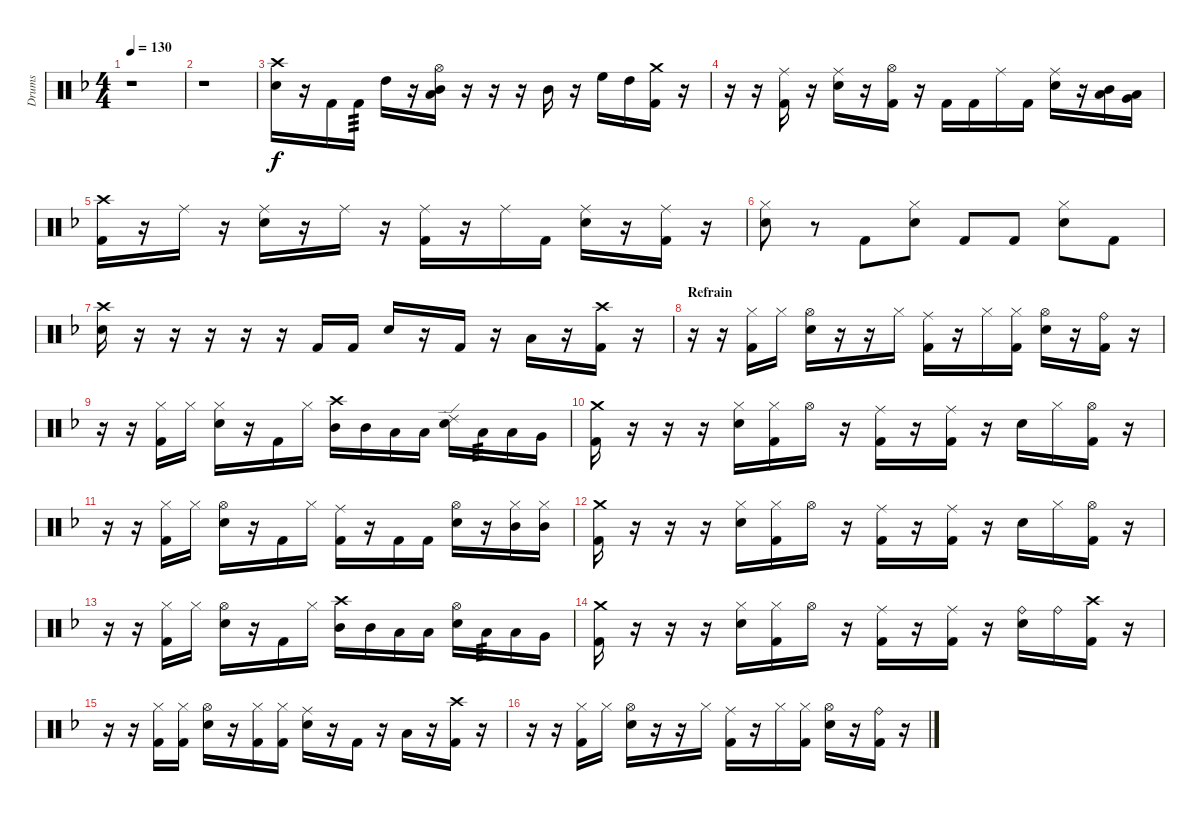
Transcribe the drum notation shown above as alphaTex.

\track ("Drums" "Drums") {instrument percussion}
\staff {score}
\articulation defaults
\ts (4 4)
\tempo 130
\clef neutral
\ks dminor
r.1{dy f} |
r.1 |
("Crash high (hit)" "Snare (hit) 2").16 r.16 "Kick (hit) 2".16 "Kick (hit) 2".16{tp 3} "High Tom (hit)".16 r.16 ("Mid Tom (hit)" "Low Tom (hit)" "Hi-Hat (open)").16 r.16 r.16 r.16 "Mid Tom (hit)".16 r.16 "High Floor Tom (hit)".16 "High Tom (hit)".16 ("Crash medium (hit)" "Kick (hit) 2").16 r.16 |
r.16 r.16 ("Kick (hit) 2" "Ride (middle)").16 r.16 ("Snare (hit) 2" "Ride (middle)").16 r.16 ("Kick (hit) 2" "Hi-Hat (open)").16 r.16 "Kick (hit) 2".16 "Kick (hit) 2".16 "Ride (middle)".16 "Kick (hit) 2".16 ("Ride (middle)" "Snare (hit) 2").16 r.16 ("Mid Tom (hit)" "Low Tom (hit)").16 ("Low Tom (hit)" "Very Low Tom (hit)").16 |
("Crash high (hit)" "Kick (hit) 2").16 r.16 "Ride (middle)".16 r.16 ("Snare (hit) 2" "Ride (middle)").16 r.16 "Ride (middle)".16 r.16 ("Ride (middle)" "Kick (hit) 2").16 r.16 "Ride (middle)".16 "Kick (hit) 2".16 ("Snare (hit) 2" "Ride (middle)").16 r.16 ("Ride (middle)" "Kick (hit) 2").16 r.16 |
("Snare (hit) 2" "Hi-Hat (closed)").8 r.8 "Kick (hit) 2".8 ("Snare (hit) 2" "Hi-Hat (closed)").8 "Kick (hit) 2".8 "Kick (hit) 2".8 ("Snare (hit) 2" "Hi-Hat (closed)").8 "Kick (hit) 2".8 |
("Crash high (hit)" "Snare (hit) 2").16 r.16 r.16 r.16 r.16 r.16 "Kick (hit) 2".16 "Kick (hit) 2".16 "Snare (hit) 2".16 r.16 "Kick (hit) 2".16 r.16 "Low Tom (hit)".16 r.16 ("Crash high (hit)" "Kick (hit) 2").16 r.16 |
\section ("" "Refrain")
r.16 r.16 ("Kick (hit) 2" "Hi-Hat (closed)").16 "Hi-Hat (closed)".16 ("Snare (hit) 2" "Hi-Hat (open)").16 r.16 r.16 "Hi-Hat (closed)".16 ("Kick (hit) 2" "Ride (middle)").16 r.16 "Hi-Hat (closed)".16 ("Kick (hit) 2" "Hi-Hat (closed)").16 ("Snare (hit) 2" "Hi-Hat (open)").16 r.16 ("Kick (hit) 2" "Ride (bell)").16 r.16 |
r.16 r.16 ("Kick (hit) 2" "Hi-Hat (closed)").16 "Hi-Hat (closed)".16 ("Snare (hit) 2" "Hi-Hat (closed)").16 r.16 "Kick (hit) 2".16 "Hi-Hat (closed)".16 ("Mid Tom (hit)" "Crash high (hit)").16 "Mid Tom (hit)".16 "Low Tom (hit)".16 "Low Tom (hit)".16 ("Snare (hit) 2" "Ride (edge) 2").16 "Low Tom (hit)".16{tp 3} "Low Tom (hit)".16 "Very Low Tom (hit)".16 |
("Kick (hit) 2" "Crash medium (hit)").16 r.16 r.16 r.16 ("Snare (hit) 2" "Hi-Hat (closed)").16 ("Kick (hit) 2" "Hi-Hat (closed)").16 "Hi-Hat (open)".16 r.16 ("Kick (hit) 2" "Ride (middle)").16 r.16 ("Kick (hit) 2" "Ride (middle)").16 r.16 "Snare (hit) 2".16 "Hi-Hat (closed)".16 ("Kick (hit) 2" "Hi-Hat (open)").16 r.16 |
r.16 r.16 ("Kick (hit) 2" "Hi-Hat (closed)").16 "Hi-Hat (closed)".16 ("Snare (hit) 2" "Hi-Hat (open)").16 r.16 "Kick (hit) 2".16 "Hi-Hat (closed)".16 ("Kick (hit) 2" "Ride (middle)").16 r.16 "Kick (hit) 2".16 "Kick (hit) 2".16 ("Snare (hit) 2" "Hi-Hat (open)").16 r.16 ("Mid Tom (hit)" "Hi-Hat (closed)").16 ("Mid Tom (hit)" "Hi-Hat (closed)").16 |
("Kick (hit) 2" "Crash medium (hit)").16 r.16 r.16 r.16 ("Snare (hit) 2" "Hi-Hat (closed)").16 ("Kick (hit) 2" "Hi-Hat (closed)").16 "Hi-Hat (open)".16 r.16 ("Kick (hit) 2" "Ride (middle)").16 r.16 ("Kick (hit) 2" "Ride (middle)").16 r.16 "Snare (hit) 2".16 "Hi-Hat (closed)".16 ("Kick (hit) 2" "Hi-Hat (open)").16 r.16 |
r.16 r.16 ("Kick (hit) 2" "Hi-Hat (closed)").16 "Hi-Hat (closed)".16 ("Snare (hit) 2" "Hi-Hat (open)").16 r.16 "Kick (hit) 2".16 "Hi-Hat (closed)".16 ("Mid Tom (hit)" "Crash high (hit)").16 "Mid Tom (hit)".16 "Low Tom (hit)".16 "Low Tom (hit)".16 ("Snare (hit) 2" "Hi-Hat (open)").16 "Low Tom (hit)".16{tp 3} "Low Tom (hit)".16 "Very Low Tom (hit)".16 |
("Kick (hit) 2" "Crash medium (hit)").16 r.16 r.16 r.16 ("Snare (hit) 2" "Hi-Hat (closed)").16 ("Kick (hit) 2" "Hi-Hat (closed)").16 "Hi-Hat (open)".16 r.16 ("Kick (hit) 2" "Ride (middle)").16 r.16 ("Kick (hit) 2" "Ride (middle)").16 r.16 ("Snare (hit) 2" "Ride (bell)").16 "Ride (bell)".16 ("Kick (hit) 2" "Crash high (hit)").16 r.16 |
r.16 r.16 ("Kick (hit) 2" "Hi-Hat (closed)").16 ("Kick (hit) 2" "Hi-Hat (closed)").16 ("Snare (hit) 2" "Hi-Hat (open)").16 r.16 ("Kick (hit) 2" "Hi-Hat (closed)").16 ("Kick (hit) 2" "Hi-Hat (closed)").16 ("Snare (hit) 2" "Ride (middle)").16 r.16 "Kick (hit) 2".16 r.16 "Low Tom (hit)".16 r.16 ("Crash high (hit)" "Kick (hit) 2").16 r.16 |
r.16 r.16 ("Kick (hit) 2" "Hi-Hat (closed)").16 "Hi-Hat (closed)".16 ("Snare (hit) 2" "Hi-Hat (open)").16 r.16 r.16 "Hi-Hat (closed)".16 ("Kick (hit) 2" "Ride (middle)").16 r.16 "Hi-Hat (closed)".16 ("Kick (hit) 2" "Hi-Hat (closed)").16 ("Snare (hit) 2" "Hi-Hat (open)").16 r.16 ("Kick (hit) 2" "Ride (bell)").16 r.16
